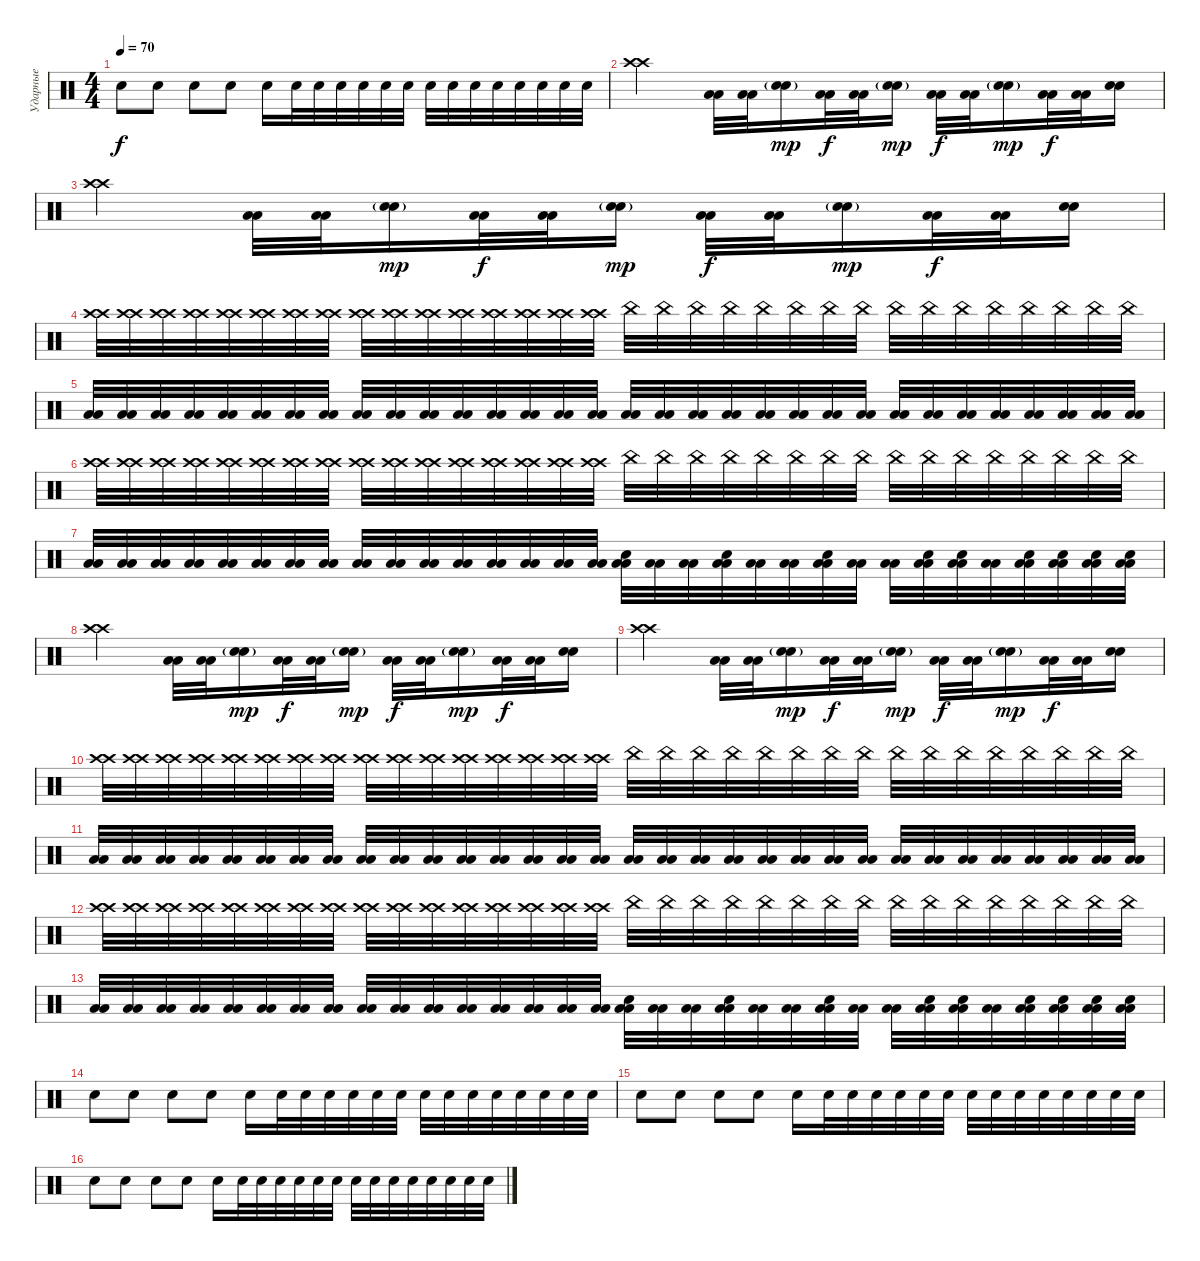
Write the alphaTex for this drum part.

\track ("Ударные" "Ударные") {instrument percussion}
\staff {score}
\articulation defaults
\ts (4 4)
\tempo 70
\clef neutral
\ks c "Electric Snare (hit)".8{dy f} "Electric Snare (hit)".8 "Electric Snare (hit)".8 "Electric Snare (hit)".8 "Electric Snare (hit)".16 "Electric Snare (hit)".32 "Electric Snare (hit)".32 "Electric Snare (hit)".32 "Electric Snare (hit)".32 "Electric Snare (hit)".32 "Electric Snare (hit)".32 "Electric Snare (hit)".32 "Electric Snare (hit)".32 "Electric Snare (hit)".32 "Electric Snare (hit)".32 "Electric Snare (hit)".32 "Electric Snare (hit)".32 "Electric Snare (hit)".32 "Electric Snare (hit)".32
|
("Crash high (hit)" "Crash high (hit)").2 ("Low Floor Tom (hit)" "Low Floor Tom (hit)").32 ("Low Floor Tom (hit)" "Low Floor Tom (hit)").32 ("Electric Snare (hit)"{g} "Electric Snare (hit)"{g}).16{dy mp} ("Low Floor Tom (hit)" "Low Floor Tom (hit)").32{dy f} ("Low Floor Tom (hit)" "Low Floor Tom (hit)").32 ("Electric Snare (hit)"{g} "Electric Snare (hit)"{g}).16{dy mp} ("Low Floor Tom (hit)" "Low Floor Tom (hit)").32{dy f} ("Low Floor Tom (hit)" "Low Floor Tom (hit)").32 ("Electric Snare (hit)"{g} "Electric Snare (hit)"{g}).16{dy mp} ("Low Floor Tom (hit)" "Low Floor Tom (hit)").32{dy f} ("Low Floor Tom (hit)" "Low Floor Tom (hit)").32 ("Electric Snare (hit)" "Electric Snare (hit)").16 |
("Crash high (hit)" "Crash high (hit)").2 ("Low Floor Tom (hit)" "Low Floor Tom (hit)").32 ("Low Floor Tom (hit)" "Low Floor Tom (hit)").32 ("Electric Snare (hit)"{g} "Electric Snare (hit)"{g}).16{dy mp} ("Low Floor Tom (hit)" "Low Floor Tom (hit)").32{dy f} ("Low Floor Tom (hit)" "Low Floor Tom (hit)").32 ("Electric Snare (hit)"{g} "Electric Snare (hit)"{g}).16{dy mp} ("Low Floor Tom (hit)" "Low Floor Tom (hit)").32{dy f} ("Low Floor Tom (hit)" "Low Floor Tom (hit)").32 ("Electric Snare (hit)"{g} "Electric Snare (hit)"{g}).16{dy mp} ("Low Floor Tom (hit)" "Low Floor Tom (hit)").32{dy f} ("Low Floor Tom (hit)" "Low Floor Tom (hit)").32 ("Electric Snare (hit)" "Electric Snare (hit)").16 |
("Crash high (hit)" "Crash high (hit)").32 ("Crash high (hit)" "Crash high (hit)").32 ("Crash high (hit)" "Crash high (hit)").32 ("Crash high (hit)" "Crash high (hit)").32 ("Crash high (hit)" "Crash high (hit)").32 ("Crash high (hit)" "Crash high (hit)").32 ("Crash high (hit)" "Crash high (hit)").32 ("Crash high (hit)" "Crash high (hit)").32 ("Crash high (hit)" "Crash high (hit)").32 ("Crash high (hit)" "Crash high (hit)").32 ("Crash high (hit)" "Crash high (hit)").32 ("Crash high (hit)" "Crash high (hit)").32 ("Crash high (hit)" "Crash high (hit)").32 ("Crash high (hit)" "Crash high (hit)").32 ("Crash high (hit)" "Crash high (hit)").32 ("Crash high (hit)" "Crash high (hit)").32 "China (hit)".32 "China (hit)".32 "China (hit)".32 "China (hit)".32 "China (hit)".32 "China (hit)".32 "China (hit)".32 "China (hit)".32 "China (hit)".32 "China (hit)".32 "China (hit)".32 "China (hit)".32 "China (hit)".32 "China (hit)".32 "China (hit)".32 "China (hit)".32 |
("Low Floor Tom (hit)" "Low Floor Tom (hit)").32 ("Low Floor Tom (hit)" "Low Floor Tom (hit)").32 ("Low Floor Tom (hit)" "Low Floor Tom (hit)").32 ("Low Floor Tom (hit)" "Low Floor Tom (hit)").32 ("Low Floor Tom (hit)" "Low Floor Tom (hit)").32 ("Low Floor Tom (hit)" "Low Floor Tom (hit)").32 ("Low Floor Tom (hit)" "Low Floor Tom (hit)").32 ("Low Floor Tom (hit)" "Low Floor Tom (hit)").32 ("Low Floor Tom (hit)" "Low Floor Tom (hit)").32 ("Low Floor Tom (hit)" "Low Floor Tom (hit)").32 ("Low Floor Tom (hit)" "Low Floor Tom (hit)").32 ("Low Floor Tom (hit)" "Low Floor Tom (hit)").32 ("Low Floor Tom (hit)" "Low Floor Tom (hit)").32 ("Low Floor Tom (hit)" "Low Floor Tom (hit)").32 ("Low Floor Tom (hit)" "Low Floor Tom (hit)").32 ("Low Floor Tom (hit)" "Low Floor Tom (hit)").32 ("Low Floor Tom (hit)" "Low Floor Tom (hit)").32 ("Low Floor Tom (hit)" "Low Floor Tom (hit)").32 ("Low Floor Tom (hit)" "Low Floor Tom (hit)").32 ("Low Floor Tom (hit)" "Low Floor Tom (hit)").32 ("Low Floor Tom (hit)" "Low Floor Tom (hit)").32 ("Low Floor Tom (hit)" "Low Floor Tom (hit)").32 ("Low Floor Tom (hit)" "Low Floor Tom (hit)").32 ("Low Floor Tom (hit)" "Low Floor Tom (hit)").32 ("Low Floor Tom (hit)" "Low Floor Tom (hit)").32 ("Low Floor Tom (hit)" "Low Floor Tom (hit)").32 ("Low Floor Tom (hit)" "Low Floor Tom (hit)").32 ("Low Floor Tom (hit)" "Low Floor Tom (hit)").32 ("Low Floor Tom (hit)" "Low Floor Tom (hit)").32 ("Low Floor Tom (hit)" "Low Floor Tom (hit)").32 ("Low Floor Tom (hit)" "Low Floor Tom (hit)").32 ("Low Floor Tom (hit)" "Low Floor Tom (hit)").32 |
("Crash high (hit)" "Crash high (hit)").32 ("Crash high (hit)" "Crash high (hit)").32 ("Crash high (hit)" "Crash high (hit)").32 ("Crash high (hit)" "Crash high (hit)").32 ("Crash high (hit)" "Crash high (hit)").32 ("Crash high (hit)" "Crash high (hit)").32 ("Crash high (hit)" "Crash high (hit)").32 ("Crash high (hit)" "Crash high (hit)").32 ("Crash high (hit)" "Crash high (hit)").32 ("Crash high (hit)" "Crash high (hit)").32 ("Crash high (hit)" "Crash high (hit)").32 ("Crash high (hit)" "Crash high (hit)").32 ("Crash high (hit)" "Crash high (hit)").32 ("Crash high (hit)" "Crash high (hit)").32 ("Crash high (hit)" "Crash high (hit)").32 ("Crash high (hit)" "Crash high (hit)").32 "China (hit)".32 "China (hit)".32 "China (hit)".32 "China (hit)".32 "China (hit)".32 "China (hit)".32 "China (hit)".32 "China (hit)".32 "China (hit)".32 "China (hit)".32 "China (hit)".32 "China (hit)".32 "China (hit)".32 "China (hit)".32 "China (hit)".32 "China (hit)".32 |
("Low Floor Tom (hit)" "Low Floor Tom (hit)").32 ("Low Floor Tom (hit)" "Low Floor Tom (hit)").32 ("Low Floor Tom (hit)" "Low Floor Tom (hit)").32 ("Low Floor Tom (hit)" "Low Floor Tom (hit)").32 ("Low Floor Tom (hit)" "Low Floor Tom (hit)").32 ("Low Floor Tom (hit)" "Low Floor Tom (hit)").32 ("Low Floor Tom (hit)" "Low Floor Tom (hit)").32 ("Low Floor Tom (hit)" "Low Floor Tom (hit)").32 ("Low Floor Tom (hit)" "Low Floor Tom (hit)").32 ("Low Floor Tom (hit)" "Low Floor Tom (hit)").32 ("Low Floor Tom (hit)" "Low Floor Tom (hit)").32 ("Low Floor Tom (hit)" "Low Floor Tom (hit)").32 ("Low Floor Tom (hit)" "Low Floor Tom (hit)").32 ("Low Floor Tom (hit)" "Low Floor Tom (hit)").32 ("Low Floor Tom (hit)" "Low Floor Tom (hit)").32 ("Low Floor Tom (hit)" "Low Floor Tom (hit)").32 ("Low Floor Tom (hit)" "Low Floor Tom (hit)" "Electric Snare (hit)").32 ("Low Floor Tom (hit)" "Low Floor Tom (hit)").32 ("Low Floor Tom (hit)" "Low Floor Tom (hit)").32 ("Low Floor Tom (hit)" "Low Floor Tom (hit)" "Electric Snare (hit)").32 ("Low Floor Tom (hit)" "Low Floor Tom (hit)").32 ("Low Floor Tom (hit)" "Low Floor Tom (hit)").32 ("Low Floor Tom (hit)" "Low Floor Tom (hit)" "Electric Snare (hit)").32 ("Low Floor Tom (hit)" "Low Floor Tom (hit)").32 ("Low Floor Tom (hit)" "Low Floor Tom (hit)").32 ("Low Floor Tom (hit)" "Low Floor Tom (hit)" "Electric Snare (hit)").32 ("Low Floor Tom (hit)" "Low Floor Tom (hit)" "Electric Snare (hit)").32 ("Low Floor Tom (hit)" "Low Floor Tom (hit)").32 ("Low Floor Tom (hit)" "Low Floor Tom (hit)" "Electric Snare (hit)").32 ("Low Floor Tom (hit)" "Low Floor Tom (hit)" "Electric Snare (hit)").32 ("Low Floor Tom (hit)" "Low Floor Tom (hit)" "Electric Snare (hit)").32 ("Low Floor Tom (hit)" "Low Floor Tom (hit)" "Electric Snare (hit)").32 |
("Crash high (hit)" "Crash high (hit)").2 ("Low Floor Tom (hit)" "Low Floor Tom (hit)").32 ("Low Floor Tom (hit)" "Low Floor Tom (hit)").32 ("Electric Snare (hit)"{g} "Electric Snare (hit)"{g}).16{dy mp} ("Low Floor Tom (hit)" "Low Floor Tom (hit)").32{dy f} ("Low Floor Tom (hit)" "Low Floor Tom (hit)").32 ("Electric Snare (hit)"{g} "Electric Snare (hit)"{g}).16{dy mp} ("Low Floor Tom (hit)" "Low Floor Tom (hit)").32{dy f} ("Low Floor Tom (hit)" "Low Floor Tom (hit)").32 ("Electric Snare (hit)"{g} "Electric Snare (hit)"{g}).16{dy mp} ("Low Floor Tom (hit)" "Low Floor Tom (hit)").32{dy f} ("Low Floor Tom (hit)" "Low Floor Tom (hit)").32 ("Electric Snare (hit)" "Electric Snare (hit)").16 |
("Crash high (hit)" "Crash high (hit)").2 ("Low Floor Tom (hit)" "Low Floor Tom (hit)").32 ("Low Floor Tom (hit)" "Low Floor Tom (hit)").32 ("Electric Snare (hit)"{g} "Electric Snare (hit)"{g}).16{dy mp} ("Low Floor Tom (hit)" "Low Floor Tom (hit)").32{dy f} ("Low Floor Tom (hit)" "Low Floor Tom (hit)").32 ("Electric Snare (hit)"{g} "Electric Snare (hit)"{g}).16{dy mp} ("Low Floor Tom (hit)" "Low Floor Tom (hit)").32{dy f} ("Low Floor Tom (hit)" "Low Floor Tom (hit)").32 ("Electric Snare (hit)"{g} "Electric Snare (hit)"{g}).16{dy mp} ("Low Floor Tom (hit)" "Low Floor Tom (hit)").32{dy f} ("Low Floor Tom (hit)" "Low Floor Tom (hit)").32 ("Electric Snare (hit)" "Electric Snare (hit)").16 |
("Crash high (hit)" "Crash high (hit)").32 ("Crash high (hit)" "Crash high (hit)").32 ("Crash high (hit)" "Crash high (hit)").32 ("Crash high (hit)" "Crash high (hit)").32 ("Crash high (hit)" "Crash high (hit)").32 ("Crash high (hit)" "Crash high (hit)").32 ("Crash high (hit)" "Crash high (hit)").32 ("Crash high (hit)" "Crash high (hit)").32 ("Crash high (hit)" "Crash high (hit)").32 ("Crash high (hit)" "Crash high (hit)").32 ("Crash high (hit)" "Crash high (hit)").32 ("Crash high (hit)" "Crash high (hit)").32 ("Crash high (hit)" "Crash high (hit)").32 ("Crash high (hit)" "Crash high (hit)").32 ("Crash high (hit)" "Crash high (hit)").32 ("Crash high (hit)" "Crash high (hit)").32 "China (hit)".32 "China (hit)".32 "China (hit)".32 "China (hit)".32 "China (hit)".32 "China (hit)".32 "China (hit)".32 "China (hit)".32 "China (hit)".32 "China (hit)".32 "China (hit)".32 "China (hit)".32 "China (hit)".32 "China (hit)".32 "China (hit)".32 "China (hit)".32 |
("Low Floor Tom (hit)" "Low Floor Tom (hit)").32 ("Low Floor Tom (hit)" "Low Floor Tom (hit)").32 ("Low Floor Tom (hit)" "Low Floor Tom (hit)").32 ("Low Floor Tom (hit)" "Low Floor Tom (hit)").32 ("Low Floor Tom (hit)" "Low Floor Tom (hit)").32 ("Low Floor Tom (hit)" "Low Floor Tom (hit)").32 ("Low Floor Tom (hit)" "Low Floor Tom (hit)").32 ("Low Floor Tom (hit)" "Low Floor Tom (hit)").32 ("Low Floor Tom (hit)" "Low Floor Tom (hit)").32 ("Low Floor Tom (hit)" "Low Floor Tom (hit)").32 ("Low Floor Tom (hit)" "Low Floor Tom (hit)").32 ("Low Floor Tom (hit)" "Low Floor Tom (hit)").32 ("Low Floor Tom (hit)" "Low Floor Tom (hit)").32 ("Low Floor Tom (hit)" "Low Floor Tom (hit)").32 ("Low Floor Tom (hit)" "Low Floor Tom (hit)").32 ("Low Floor Tom (hit)" "Low Floor Tom (hit)").32 ("Low Floor Tom (hit)" "Low Floor Tom (hit)").32 ("Low Floor Tom (hit)" "Low Floor Tom (hit)").32 ("Low Floor Tom (hit)" "Low Floor Tom (hit)").32 ("Low Floor Tom (hit)" "Low Floor Tom (hit)").32 ("Low Floor Tom (hit)" "Low Floor Tom (hit)").32 ("Low Floor Tom (hit)" "Low Floor Tom (hit)").32 ("Low Floor Tom (hit)" "Low Floor Tom (hit)").32 ("Low Floor Tom (hit)" "Low Floor Tom (hit)").32 ("Low Floor Tom (hit)" "Low Floor Tom (hit)").32 ("Low Floor Tom (hit)" "Low Floor Tom (hit)").32 ("Low Floor Tom (hit)" "Low Floor Tom (hit)").32 ("Low Floor Tom (hit)" "Low Floor Tom (hit)").32 ("Low Floor Tom (hit)" "Low Floor Tom (hit)").32 ("Low Floor Tom (hit)" "Low Floor Tom (hit)").32 ("Low Floor Tom (hit)" "Low Floor Tom (hit)").32 ("Low Floor Tom (hit)" "Low Floor Tom (hit)").32 |
("Crash high (hit)" "Crash high (hit)").32 ("Crash high (hit)" "Crash high (hit)").32 ("Crash high (hit)" "Crash high (hit)").32 ("Crash high (hit)" "Crash high (hit)").32 ("Crash high (hit)" "Crash high (hit)").32 ("Crash high (hit)" "Crash high (hit)").32 ("Crash high (hit)" "Crash high (hit)").32 ("Crash high (hit)" "Crash high (hit)").32 ("Crash high (hit)" "Crash high (hit)").32 ("Crash high (hit)" "Crash high (hit)").32 ("Crash high (hit)" "Crash high (hit)").32 ("Crash high (hit)" "Crash high (hit)").32 ("Crash high (hit)" "Crash high (hit)").32 ("Crash high (hit)" "Crash high (hit)").32 ("Crash high (hit)" "Crash high (hit)").32 ("Crash high (hit)" "Crash high (hit)").32 "China (hit)".32 "China (hit)".32 "China (hit)".32 "China (hit)".32 "China (hit)".32 "China (hit)".32 "China (hit)".32 "China (hit)".32 "China (hit)".32 "China (hit)".32 "China (hit)".32 "China (hit)".32 "China (hit)".32 "China (hit)".32 "China (hit)".32 "China (hit)".32 |
("Low Floor Tom (hit)" "Low Floor Tom (hit)").32 ("Low Floor Tom (hit)" "Low Floor Tom (hit)").32 ("Low Floor Tom (hit)" "Low Floor Tom (hit)").32 ("Low Floor Tom (hit)" "Low Floor Tom (hit)").32 ("Low Floor Tom (hit)" "Low Floor Tom (hit)").32 ("Low Floor Tom (hit)" "Low Floor Tom (hit)").32 ("Low Floor Tom (hit)" "Low Floor Tom (hit)").32 ("Low Floor Tom (hit)" "Low Floor Tom (hit)").32 ("Low Floor Tom (hit)" "Low Floor Tom (hit)").32 ("Low Floor Tom (hit)" "Low Floor Tom (hit)").32 ("Low Floor Tom (hit)" "Low Floor Tom (hit)").32 ("Low Floor Tom (hit)" "Low Floor Tom (hit)").32 ("Low Floor Tom (hit)" "Low Floor Tom (hit)").32 ("Low Floor Tom (hit)" "Low Floor Tom (hit)").32 ("Low Floor Tom (hit)" "Low Floor Tom (hit)").32 ("Low Floor Tom (hit)" "Low Floor Tom (hit)").32 ("Low Floor Tom (hit)" "Low Floor Tom (hit)" "Electric Snare (hit)").32 ("Low Floor Tom (hit)" "Low Floor Tom (hit)").32 ("Low Floor Tom (hit)" "Low Floor Tom (hit)").32 ("Low Floor Tom (hit)" "Low Floor Tom (hit)" "Electric Snare (hit)").32 ("Low Floor Tom (hit)" "Low Floor Tom (hit)").32 ("Low Floor Tom (hit)" "Low Floor Tom (hit)").32 ("Low Floor Tom (hit)" "Low Floor Tom (hit)" "Electric Snare (hit)").32 ("Low Floor Tom (hit)" "Low Floor Tom (hit)").32 ("Low Floor Tom (hit)" "Low Floor Tom (hit)").32 ("Low Floor Tom (hit)" "Low Floor Tom (hit)" "Electric Snare (hit)").32 ("Low Floor Tom (hit)" "Low Floor Tom (hit)" "Electric Snare (hit)").32 ("Low Floor Tom (hit)" "Low Floor Tom (hit)").32 ("Low Floor Tom (hit)" "Low Floor Tom (hit)" "Electric Snare (hit)").32 ("Low Floor Tom (hit)" "Low Floor Tom (hit)" "Electric Snare (hit)").32 ("Low Floor Tom (hit)" "Low Floor Tom (hit)" "Electric Snare (hit)").32 ("Low Floor Tom (hit)" "Low Floor Tom (hit)" "Electric Snare (hit)").32 |
"Electric Snare (hit)".8 "Electric Snare (hit)".8 "Electric Snare (hit)".8 "Electric Snare (hit)".8 "Electric Snare (hit)".16 "Electric Snare (hit)".32 "Electric Snare (hit)".32 "Electric Snare (hit)".32 "Electric Snare (hit)".32 "Electric Snare (hit)".32 "Electric Snare (hit)".32 "Electric Snare (hit)".32 "Electric Snare (hit)".32 "Electric Snare (hit)".32 "Electric Snare (hit)".32 "Electric Snare (hit)".32 "Electric Snare (hit)".32 "Electric Snare (hit)".32 "Electric Snare (hit)".32 |
"Electric Snare (hit)".8 "Electric Snare (hit)".8 "Electric Snare (hit)".8 "Electric Snare (hit)".8 "Electric Snare (hit)".16 "Electric Snare (hit)".32 "Electric Snare (hit)".32 "Electric Snare (hit)".32 "Electric Snare (hit)".32 "Electric Snare (hit)".32 "Electric Snare (hit)".32 "Electric Snare (hit)".32 "Electric Snare (hit)".32 "Electric Snare (hit)".32 "Electric Snare (hit)".32 "Electric Snare (hit)".32 "Electric Snare (hit)".32 "Electric Snare (hit)".32 "Electric Snare (hit)".32 |
"Electric Snare (hit)".8 "Electric Snare (hit)".8 "Electric Snare (hit)".8 "Electric Snare (hit)".8 "Electric Snare (hit)".16 "Electric Snare (hit)".32 "Electric Snare (hit)".32 "Electric Snare (hit)".32 "Electric Snare (hit)".32 "Electric Snare (hit)".32 "Electric Snare (hit)".32 "Electric Snare (hit)".32 "Electric Snare (hit)".32 "Electric Snare (hit)".32 "Electric Snare (hit)".32 "Electric Snare (hit)".32 "Electric Snare (hit)".32 "Electric Snare (hit)".32 "Electric Snare (hit)".32
